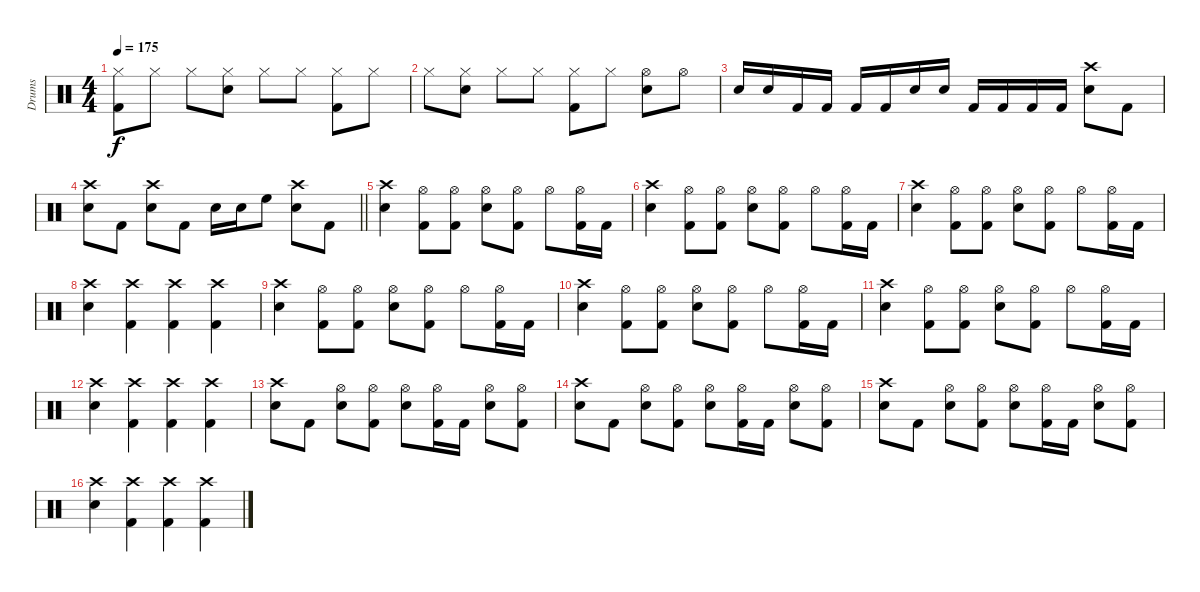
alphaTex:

\track ("Drums" "Drums") {instrument percussion}
\staff {score}
\articulation defaults
\ts (4 4)
\tempo 175
\clef neutral
\ks c
("Hi-Hat (closed)" "Kick (hit) 2").8{dy f} "Hi-Hat (closed)".8 "Hi-Hat (closed)".8 ("Hi-Hat (closed)" "Snare (hit) 2").8 "Hi-Hat (closed)".8 "Hi-Hat (closed)".8 ("Hi-Hat (closed)" "Kick (hit) 2").8 "Hi-Hat (closed)".8 |
"Hi-Hat (closed)".8 ("Hi-Hat (closed)" "Snare (hit) 2").8 "Hi-Hat (closed)".8 "Hi-Hat (closed)".8 ("Hi-Hat (closed)" "Kick (hit) 2").8 "Hi-Hat (closed)".8 ("Hi-Hat (open)" "Snare (hit) 2").8 "Hi-Hat (open)".8 |
"Snare (hit) 2".16 "Snare (hit) 2".16 "Kick (hit) 2".16 "Kick (hit) 2".16 "Kick (hit) 2".16 "Kick (hit) 2".16 "Snare (hit) 2".16 "Snare (hit) 2".16 "Kick (hit) 2".16 "Kick (hit) 2".16 "Kick (hit) 2".16 "Kick (hit) 2".16 ("Crash high (hit)" "Snare (hit) 2").8 "Kick (hit) 2".8 |
\barLineRight lightlight
("Crash high (hit)" "Snare (hit) 2").8 "Kick (hit) 2".8 ("Crash high (hit)" "Snare (hit) 2").8 "Kick (hit) 2".8 "Snare (hit) 2".16 "Snare (hit) 2".16 "High Floor Tom (hit)".8 ("Crash high (hit)" "Snare (hit) 2").8 "Kick (hit) 2".8 |
("Crash high (hit)" "Snare (hit) 2").4 ("Hi-Hat (open)" "Kick (hit) 2").8 ("Hi-Hat (open)" "Kick (hit) 2").8 ("Hi-Hat (open)" "Snare (hit) 2").8 ("Hi-Hat (open)" "Kick (hit) 2").8 "Hi-Hat (open)".8 ("Hi-Hat (open)" "Kick (hit) 2").16 "Kick (hit) 2".16 |
("Crash high (hit)" "Snare (hit) 2").4 ("Hi-Hat (open)" "Kick (hit) 2").8 ("Hi-Hat (open)" "Kick (hit) 2").8 ("Hi-Hat (open)" "Snare (hit) 2").8 ("Hi-Hat (open)" "Kick (hit) 2").8 "Hi-Hat (open)".8 ("Hi-Hat (open)" "Kick (hit) 2").16 "Kick (hit) 2".16 |
("Crash high (hit)" "Snare (hit) 2").4 ("Hi-Hat (open)" "Kick (hit) 2").8 ("Hi-Hat (open)" "Kick (hit) 2").8 ("Hi-Hat (open)" "Snare (hit) 2").8 ("Hi-Hat (open)" "Kick (hit) 2").8 "Hi-Hat (open)".8 ("Hi-Hat (open)" "Kick (hit) 2").16 "Kick (hit) 2".16 |
("Crash high (hit)" "Snare (hit) 2").4 ("Crash high (hit)" "Kick (hit) 2").4 ("Crash high (hit)" "Kick (hit) 2").4 ("Crash high (hit)" "Kick (hit) 2").4 |
("Crash high (hit)" "Snare (hit) 2").4 ("Hi-Hat (open)" "Kick (hit) 2").8 ("Hi-Hat (open)" "Kick (hit) 2").8 ("Hi-Hat (open)" "Snare (hit) 2").8 ("Hi-Hat (open)" "Kick (hit) 2").8 "Hi-Hat (open)".8 ("Hi-Hat (open)" "Kick (hit) 2").16 "Kick (hit) 2".16 |
("Crash high (hit)" "Snare (hit) 2").4 ("Hi-Hat (open)" "Kick (hit) 2").8 ("Hi-Hat (open)" "Kick (hit) 2").8 ("Hi-Hat (open)" "Snare (hit) 2").8 ("Hi-Hat (open)" "Kick (hit) 2").8 "Hi-Hat (open)".8 ("Hi-Hat (open)" "Kick (hit) 2").16 "Kick (hit) 2".16 |
("Crash high (hit)" "Snare (hit) 2").4 ("Hi-Hat (open)" "Kick (hit) 2").8 ("Hi-Hat (open)" "Kick (hit) 2").8 ("Hi-Hat (open)" "Snare (hit) 2").8 ("Hi-Hat (open)" "Kick (hit) 2").8 "Hi-Hat (open)".8 ("Hi-Hat (open)" "Kick (hit) 2").16 "Kick (hit) 2".16 |
("Crash high (hit)" "Snare (hit) 2").4 ("Crash high (hit)" "Kick (hit) 2").4 ("Crash high (hit)" "Kick (hit) 2").4 ("Crash high (hit)" "Kick (hit) 2").4 |
("Crash high (hit)" "Snare (hit) 2").8 "Kick (hit) 2".8 ("Hi-Hat (open)" "Snare (hit) 2").8 ("Hi-Hat (open)" "Kick (hit) 2").8 ("Hi-Hat (open)" "Snare (hit) 2").8 ("Hi-Hat (open)" "Kick (hit) 2").16 "Kick (hit) 2".16 ("Hi-Hat (open)" "Snare (hit) 2").8 ("Hi-Hat (open)" "Kick (hit) 2").8 |
("Crash high (hit)" "Snare (hit) 2").8 "Kick (hit) 2".8 ("Hi-Hat (open)" "Snare (hit) 2").8 ("Hi-Hat (open)" "Kick (hit) 2").8 ("Hi-Hat (open)" "Snare (hit) 2").8 ("Hi-Hat (open)" "Kick (hit) 2").16 "Kick (hit) 2".16 ("Hi-Hat (open)" "Snare (hit) 2").8 ("Hi-Hat (open)" "Kick (hit) 2").8 |
("Crash high (hit)" "Snare (hit) 2").8 "Kick (hit) 2".8 ("Hi-Hat (open)" "Snare (hit) 2").8 ("Hi-Hat (open)" "Kick (hit) 2").8 ("Hi-Hat (open)" "Snare (hit) 2").8 ("Hi-Hat (open)" "Kick (hit) 2").16 "Kick (hit) 2".16 ("Hi-Hat (open)" "Snare (hit) 2").8 ("Hi-Hat (open)" "Kick (hit) 2").8 |
("Crash high (hit)" "Snare (hit) 2").4 ("Crash high (hit)" "Kick (hit) 2").4 ("Crash high (hit)" "Kick (hit) 2").4 ("Crash high (hit)" "Kick (hit) 2").4
